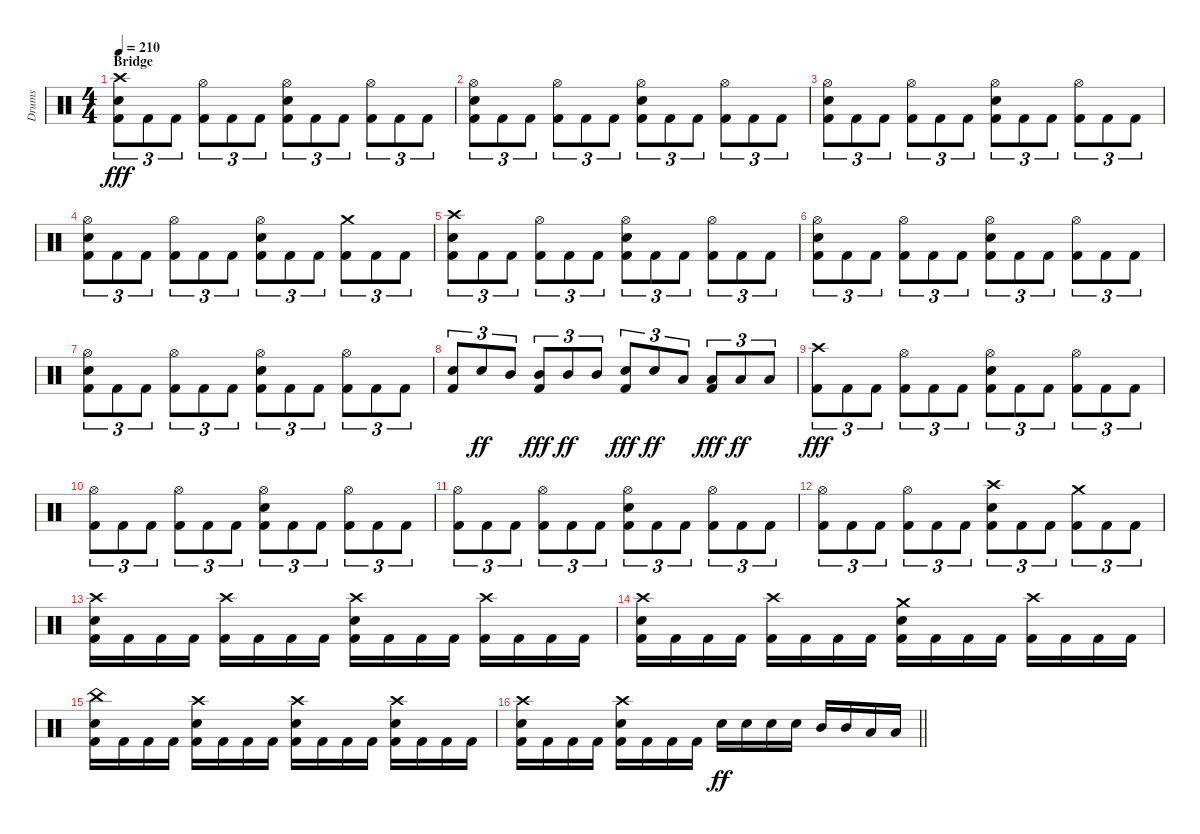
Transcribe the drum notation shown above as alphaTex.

\track ("Drums" "Drums") {instrument percussion}
\staff {score}
\articulation defaults
\ts (4 4)
\section ("" "Bridge")
\tempo 210
\clef neutral
\ks c
("Crash high (hit)" "Snare (hit) 2" "Kick (hit) 2").8{tu (3 2) dy fff} "Kick (hit) 2".8{tu (3 2)} "Kick (hit) 2".8{tu (3 2)} ("Hi-Hat (open)" "Kick (hit) 2").8{tu (3 2)} "Kick (hit) 2".8{tu (3 2)} "Kick (hit) 2".8{tu (3 2)} ("Hi-Hat (open)" "Snare (hit) 2" "Kick (hit) 2").8{tu (3 2)} "Kick (hit) 2".8{tu (3 2)} "Kick (hit) 2".8{tu (3 2)} ("Hi-Hat (open)" "Kick (hit) 2").8{tu (3 2)} "Kick (hit) 2".8{tu (3 2)} "Kick (hit) 2".8{tu (3 2)} |
("Hi-Hat (open)" "Snare (hit) 2" "Kick (hit) 2").8{tu (3 2)} "Kick (hit) 2".8{tu (3 2)} "Kick (hit) 2".8{tu (3 2)} ("Hi-Hat (open)" "Kick (hit) 2").8{tu (3 2)} "Kick (hit) 2".8{tu (3 2)} "Kick (hit) 2".8{tu (3 2)} ("Hi-Hat (open)" "Snare (hit) 2" "Kick (hit) 2").8{tu (3 2)} "Kick (hit) 2".8{tu (3 2)} "Kick (hit) 2".8{tu (3 2)} ("Hi-Hat (open)" "Kick (hit) 2").8{tu (3 2)} "Kick (hit) 2".8{tu (3 2)} "Kick (hit) 2".8{tu (3 2)} |
("Hi-Hat (open)" "Snare (hit) 2" "Kick (hit) 2").8{tu (3 2)} "Kick (hit) 2".8{tu (3 2)} "Kick (hit) 2".8{tu (3 2)} ("Hi-Hat (open)" "Kick (hit) 2").8{tu (3 2)} "Kick (hit) 2".8{tu (3 2)} "Kick (hit) 2".8{tu (3 2)} ("Hi-Hat (open)" "Snare (hit) 2" "Kick (hit) 2").8{tu (3 2)} "Kick (hit) 2".8{tu (3 2)} "Kick (hit) 2".8{tu (3 2)} ("Hi-Hat (open)" "Kick (hit) 2").8{tu (3 2)} "Kick (hit) 2".8{tu (3 2)} "Kick (hit) 2".8{tu (3 2)} |
("Hi-Hat (open)" "Snare (hit) 2" "Kick (hit) 2").8{tu (3 2)} "Kick (hit) 2".8{tu (3 2)} "Kick (hit) 2".8{tu (3 2)} ("Hi-Hat (open)" "Kick (hit) 2").8{tu (3 2)} "Kick (hit) 2".8{tu (3 2)} "Kick (hit) 2".8{tu (3 2)} ("Hi-Hat (open)" "Snare (hit) 2" "Kick (hit) 2").8{tu (3 2)} "Kick (hit) 2".8{tu (3 2)} "Kick (hit) 2".8{tu (3 2)} ("Crash medium (hit)" "Kick (hit) 2").8{tu (3 2)} "Kick (hit) 2".8{tu (3 2)} "Kick (hit) 2".8{tu (3 2)} |
("Crash high (hit)" "Snare (hit) 2" "Kick (hit) 2").8{tu (3 2)} "Kick (hit) 2".8{tu (3 2)} "Kick (hit) 2".8{tu (3 2)} ("Hi-Hat (open)" "Kick (hit) 2").8{tu (3 2)} "Kick (hit) 2".8{tu (3 2)} "Kick (hit) 2".8{tu (3 2)} ("Hi-Hat (open)" "Snare (hit) 2" "Kick (hit) 2").8{tu (3 2)} "Kick (hit) 2".8{tu (3 2)} "Kick (hit) 2".8{tu (3 2)} ("Hi-Hat (open)" "Kick (hit) 2").8{tu (3 2)} "Kick (hit) 2".8{tu (3 2)} "Kick (hit) 2".8{tu (3 2)} |
("Hi-Hat (open)" "Snare (hit) 2" "Kick (hit) 2").8{tu (3 2)} "Kick (hit) 2".8{tu (3 2)} "Kick (hit) 2".8{tu (3 2)} ("Hi-Hat (open)" "Kick (hit) 2").8{tu (3 2)} "Kick (hit) 2".8{tu (3 2)} "Kick (hit) 2".8{tu (3 2)} ("Hi-Hat (open)" "Snare (hit) 2" "Kick (hit) 2").8{tu (3 2)} "Kick (hit) 2".8{tu (3 2)} "Kick (hit) 2".8{tu (3 2)} ("Hi-Hat (open)" "Kick (hit) 2").8{tu (3 2)} "Kick (hit) 2".8{tu (3 2)} "Kick (hit) 2".8{tu (3 2)} |
("Hi-Hat (open)" "Snare (hit) 2" "Kick (hit) 2").8{tu (3 2)} "Kick (hit) 2".8{tu (3 2)} "Kick (hit) 2".8{tu (3 2)} ("Hi-Hat (open)" "Kick (hit) 2").8{tu (3 2)} "Kick (hit) 2".8{tu (3 2)} "Kick (hit) 2".8{tu (3 2)} ("Hi-Hat (open)" "Snare (hit) 2" "Kick (hit) 2").8{tu (3 2)} "Kick (hit) 2".8{tu (3 2)} "Kick (hit) 2".8{tu (3 2)} ("Hi-Hat (open)" "Kick (hit) 2").8{tu (3 2)} "Kick (hit) 2".8{tu (3 2)} "Kick (hit) 2".8{tu (3 2)} |
("Snare (hit) 2" "Kick (hit) 2").8{tu (3 2)} "Snare (hit) 2".8{tu (3 2) dy ff} "Mid Tom (hit)".8{tu (3 2)} ("Mid Tom (hit)" "Kick (hit) 2").8{tu (3 2) dy fff} "Mid Tom (hit)".8{tu (3 2) dy ff} "Mid Tom (hit)".8{tu (3 2)} ("Snare (hit) 2" "Kick (hit) 2").8{tu (3 2) dy fff} "Snare (hit) 2".8{tu (3 2) dy ff} "Low Tom (hit)".8{tu (3 2)} ("Low Tom (hit)" "Kick (hit) 2").8{tu (3 2) dy fff} "Low Tom (hit)".8{tu (3 2) dy ff} "Low Tom (hit)".8{tu (3 2)} |
("Crash high (hit)" "Kick (hit) 2").8{tu (3 2) dy fff} "Kick (hit) 2".8{tu (3 2)} "Kick (hit) 2".8{tu (3 2)} ("Hi-Hat (open)" "Kick (hit) 2").8{tu (3 2)} "Kick (hit) 2".8{tu (3 2)} "Kick (hit) 2".8{tu (3 2)} ("Hi-Hat (open)" "Snare (hit) 2" "Kick (hit) 2").8{tu (3 2)} "Kick (hit) 2".8{tu (3 2)} "Kick (hit) 2".8{tu (3 2)} ("Hi-Hat (open)" "Kick (hit) 2").8{tu (3 2)} "Kick (hit) 2".8{tu (3 2)} "Kick (hit) 2".8{tu (3 2)} |
("Hi-Hat (open)" "Kick (hit) 2").8{tu (3 2)} "Kick (hit) 2".8{tu (3 2)} "Kick (hit) 2".8{tu (3 2)} ("Hi-Hat (open)" "Kick (hit) 2").8{tu (3 2)} "Kick (hit) 2".8{tu (3 2)} "Kick (hit) 2".8{tu (3 2)} ("Hi-Hat (open)" "Snare (hit) 2" "Kick (hit) 2").8{tu (3 2)} "Kick (hit) 2".8{tu (3 2)} "Kick (hit) 2".8{tu (3 2)} ("Hi-Hat (open)" "Kick (hit) 2").8{tu (3 2)} "Kick (hit) 2".8{tu (3 2)} "Kick (hit) 2".8{tu (3 2)} |
("Hi-Hat (open)" "Kick (hit) 2").8{tu (3 2)} "Kick (hit) 2".8{tu (3 2)} "Kick (hit) 2".8{tu (3 2)} ("Hi-Hat (open)" "Kick (hit) 2").8{tu (3 2)} "Kick (hit) 2".8{tu (3 2)} "Kick (hit) 2".8{tu (3 2)} ("Hi-Hat (open)" "Snare (hit) 2" "Kick (hit) 2").8{tu (3 2)} "Kick (hit) 2".8{tu (3 2)} "Kick (hit) 2".8{tu (3 2)} ("Hi-Hat (open)" "Kick (hit) 2").8{tu (3 2)} "Kick (hit) 2".8{tu (3 2)} "Kick (hit) 2".8{tu (3 2)} |
("Hi-Hat (open)" "Kick (hit) 2").8{tu (3 2)} "Kick (hit) 2".8{tu (3 2)} "Kick (hit) 2".8{tu (3 2)} ("Hi-Hat (open)" "Kick (hit) 2").8{tu (3 2)} "Kick (hit) 2".8{tu (3 2)} "Kick (hit) 2".8{tu (3 2)} ("Crash high (hit)" "Snare (hit) 2" "Kick (hit) 2").8{tu (3 2)} "Kick (hit) 2".8{tu (3 2)} "Kick (hit) 2".8{tu (3 2)} ("Crash medium (hit)" "Kick (hit) 2").8{tu (3 2)} "Kick (hit) 2".8{tu (3 2)} "Kick (hit) 2".8{tu (3 2)} |
("Crash high (hit)" "Snare (hit) 2" "Kick (hit) 2").16 "Kick (hit) 2".16 "Kick (hit) 2".16 "Kick (hit) 2".16 ("Crash high (hit)" "Kick (hit) 2").16 "Kick (hit) 2".16 "Kick (hit) 2".16 "Kick (hit) 2".16 ("Crash high (hit)" "Snare (hit) 2" "Kick (hit) 2").16 "Kick (hit) 2".16 "Kick (hit) 2".16 "Kick (hit) 2".16 ("Crash high (hit)" "Kick (hit) 2").16 "Kick (hit) 2".16 "Kick (hit) 2".16 "Kick (hit) 2".16 |
("Crash high (hit)" "Snare (hit) 2" "Kick (hit) 2").16 "Kick (hit) 2".16 "Kick (hit) 2".16 "Kick (hit) 2".16 ("Crash high (hit)" "Kick (hit) 2").16 "Kick (hit) 2".16 "Kick (hit) 2".16 "Kick (hit) 2".16 ("Crash medium (hit)" "Snare (hit) 2" "Kick (hit) 2").16 "Kick (hit) 2".16 "Kick (hit) 2".16 "Kick (hit) 2".16 ("Crash high (hit)" "Kick (hit) 2").16 "Kick (hit) 2".16 "Kick (hit) 2".16 "Kick (hit) 2".16 |
("China (hit)" "Snare (hit) 2" "Kick (hit) 2").16 "Kick (hit) 2".16 "Kick (hit) 2".16 "Kick (hit) 2".16 ("Crash high (hit)" "Snare (hit) 2" "Kick (hit) 2").16 "Kick (hit) 2".16 "Kick (hit) 2".16 "Kick (hit) 2".16 ("Crash high (hit)" "Snare (hit) 2" "Kick (hit) 2").16 "Kick (hit) 2".16 "Kick (hit) 2".16 "Kick (hit) 2".16 ("Crash high (hit)" "Snare (hit) 2" "Kick (hit) 2").16 "Kick (hit) 2".16 "Kick (hit) 2".16 "Kick (hit) 2".16 |
\barLineRight lightlight
("Crash high (hit)" "Snare (hit) 2" "Kick (hit) 2").16 "Kick (hit) 2".16 "Kick (hit) 2".16 "Kick (hit) 2".16 ("Crash high (hit)" "Snare (hit) 2" "Kick (hit) 2").16 "Kick (hit) 2".16 "Kick (hit) 2".16 "Kick (hit) 2".16 "Snare (hit) 2".16{dy ff} "Snare (hit) 2".16 "Snare (hit) 2".16 "Snare (hit) 2".16 "Mid Tom (hit)".16 "Mid Tom (hit)".16 "Low Tom (hit)".16 "Low Tom (hit)".16
